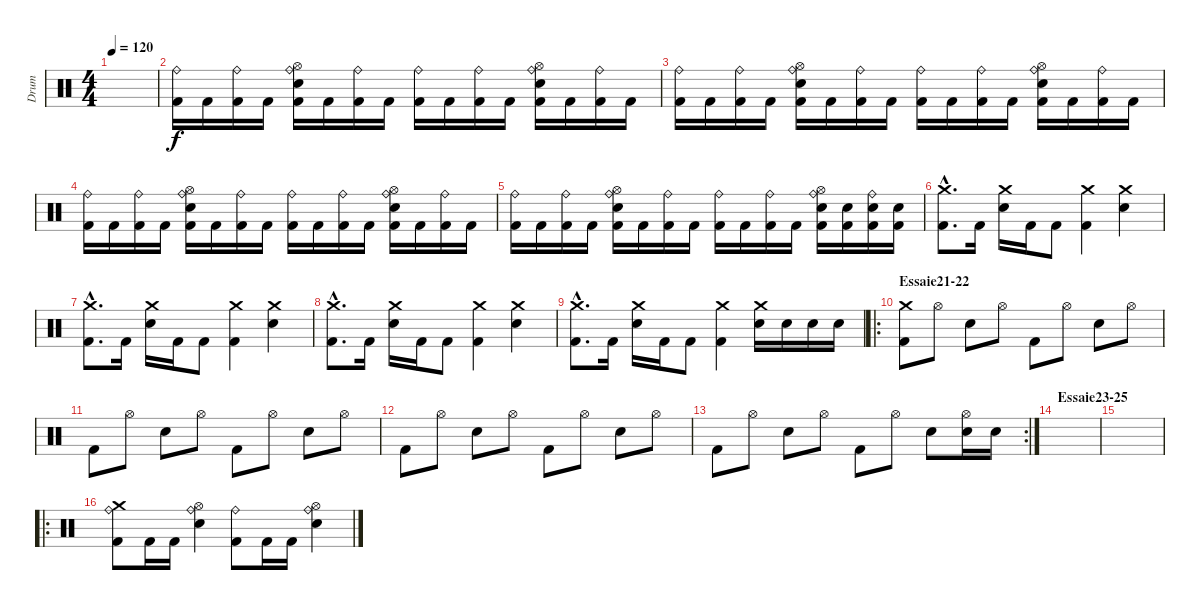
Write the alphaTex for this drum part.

\track ("Drum" "Drum") {instrument percussion}
\staff {score}
\articulation defaults
\ts (4 4)
\tempo 120
\clef neutral
\ks c
|
("Ride (bell)" "Kick (hit) 2").16 "Kick (hit) 2".16 ("Ride (bell)" "Kick (hit) 2").16 "Kick (hit) 2".16 ("Ride (bell)" "Hi-Hat (open)" "Snare (hit) 2" "Kick (hit) 2").16 "Kick (hit) 2".16 ("Ride (bell)" "Kick (hit) 2").16 "Kick (hit) 2".16 ("Ride (bell)" "Kick (hit) 2").16 "Kick (hit) 2".16 ("Ride (bell)" "Kick (hit) 2").16 "Kick (hit) 2".16 ("Ride (bell)" "Hi-Hat (open)" "Snare (hit) 2" "Kick (hit) 2").16 "Kick (hit) 2".16 ("Ride (bell)" "Kick (hit) 2").16 "Kick (hit) 2".16 |
("Ride (bell)" "Kick (hit) 2").16 "Kick (hit) 2".16 ("Ride (bell)" "Kick (hit) 2").16 "Kick (hit) 2".16 ("Ride (bell)" "Hi-Hat (open)" "Snare (hit) 2" "Kick (hit) 2").16 "Kick (hit) 2".16 ("Ride (bell)" "Kick (hit) 2").16 "Kick (hit) 2".16 ("Ride (bell)" "Kick (hit) 2").16 "Kick (hit) 2".16 ("Ride (bell)" "Kick (hit) 2").16 "Kick (hit) 2".16 ("Ride (bell)" "Hi-Hat (open)" "Snare (hit) 2" "Kick (hit) 2").16 "Kick (hit) 2".16 ("Ride (bell)" "Kick (hit) 2").16 "Kick (hit) 2".16 |
("Ride (bell)" "Kick (hit) 2").16 "Kick (hit) 2".16 ("Ride (bell)" "Kick (hit) 2").16 "Kick (hit) 2".16 ("Ride (bell)" "Hi-Hat (open)" "Snare (hit) 2" "Kick (hit) 2").16 "Kick (hit) 2".16 ("Ride (bell)" "Kick (hit) 2").16 "Kick (hit) 2".16 ("Ride (bell)" "Kick (hit) 2").16 "Kick (hit) 2".16 ("Ride (bell)" "Kick (hit) 2").16 "Kick (hit) 2".16 ("Ride (bell)" "Hi-Hat (open)" "Snare (hit) 2" "Kick (hit) 2").16 "Kick (hit) 2".16 ("Ride (bell)" "Kick (hit) 2").16 "Kick (hit) 2".16 |
("Ride (bell)" "Kick (hit) 2").16 "Kick (hit) 2".16 ("Ride (bell)" "Kick (hit) 2").16 "Kick (hit) 2".16 ("Ride (bell)" "Hi-Hat (open)" "Snare (hit) 2" "Kick (hit) 2").16 "Kick (hit) 2".16 ("Ride (bell)" "Kick (hit) 2").16 "Kick (hit) 2".16 ("Ride (bell)" "Kick (hit) 2").16 "Kick (hit) 2".16 ("Ride (bell)" "Kick (hit) 2").16 "Kick (hit) 2".16 ("Ride (bell)" "Hi-Hat (open)" "Snare (hit) 2" "Kick (hit) 2").16 ("Snare (hit) 2" "Kick (hit) 2").16 ("Ride (bell)" "Snare (hit) 2" "Kick (hit) 2").16 ("Snare (hit) 2" "Kick (hit) 2").16 |
("Crash medium (hit)"{hac} "Kick (hit) 2"{hac}).8{d} "Kick (hit) 2".16 ("Crash medium (hit)" "Snare (hit) 2").16 "Kick (hit) 2".16 "Kick (hit) 2".8 ("Crash medium (hit)" "Kick (hit) 2").4 ("Crash medium (hit)" "Snare (hit) 2").4 |
("Crash medium (hit)"{hac} "Kick (hit) 2"{hac}).8{d} "Kick (hit) 2".16 ("Crash medium (hit)" "Snare (hit) 2").16 "Kick (hit) 2".16 "Kick (hit) 2".8 ("Crash medium (hit)" "Kick (hit) 2").4 ("Crash medium (hit)" "Snare (hit) 2").4 |
("Crash medium (hit)"{hac} "Kick (hit) 2"{hac}).8{d} "Kick (hit) 2".16 ("Crash medium (hit)" "Snare (hit) 2").16 "Kick (hit) 2".16 "Kick (hit) 2".8 ("Crash medium (hit)" "Kick (hit) 2").4 ("Crash medium (hit)" "Snare (hit) 2").4 |
("Crash medium (hit)"{hac} "Kick (hit) 2"{hac}).8{d} "Kick (hit) 2".16 ("Crash medium (hit)" "Snare (hit) 2").16 "Kick (hit) 2".16 "Kick (hit) 2".8 ("Crash medium (hit)" "Kick (hit) 2").4 ("Crash medium (hit)" "Snare (hit) 2").16 "Snare (hit) 2".16 "Snare (hit) 2".16 "Snare (hit) 2".16 |
\ro
\section ("" "Essaie21-22")
("Crash medium (hit)" "Kick (hit) 2").8 "Hi-Hat (open)".8 "Snare (hit) 2".8 "Hi-Hat (open)".8 "Kick (hit) 2".8 "Hi-Hat (open)".8 "Snare (hit) 2".8 "Hi-Hat (open)".8 |
"Kick (hit) 2".8 "Hi-Hat (open)".8 "Snare (hit) 2".8 "Hi-Hat (open)".8 "Kick (hit) 2".8 "Hi-Hat (open)".8 "Snare (hit) 2".8 "Hi-Hat (open)".8 |
"Kick (hit) 2".8 "Hi-Hat (open)".8 "Snare (hit) 2".8 "Hi-Hat (open)".8 "Kick (hit) 2".8 "Hi-Hat (open)".8 "Snare (hit) 2".8 "Hi-Hat (open)".8 |
\rc 2 "Kick (hit) 2".8 "Hi-Hat (open)".8 "Snare (hit) 2".8 "Hi-Hat (open)".8 "Kick (hit) 2".8 "Hi-Hat (open)".8 "Snare (hit) 2".8
("Hi-Hat (open)" "Snare (hit) 2").16 "Snare (hit) 2".16 |
\section ("" "Essaie23-25")
|
|
\ro
("Ride (bell)" "Crash medium (hit)" "Kick (hit) 2").8 "Kick (hit) 2".16 "Kick (hit) 2".16 ("Ride (bell)" "Hi-Hat (open)" "Snare (hit) 2").4 ("Ride (bell)" "Kick (hit) 2").8 "Kick (hit) 2".16 "Kick (hit) 2".16 ("Ride (bell)" "Hi-Hat (open)" "Snare (hit) 2").4
